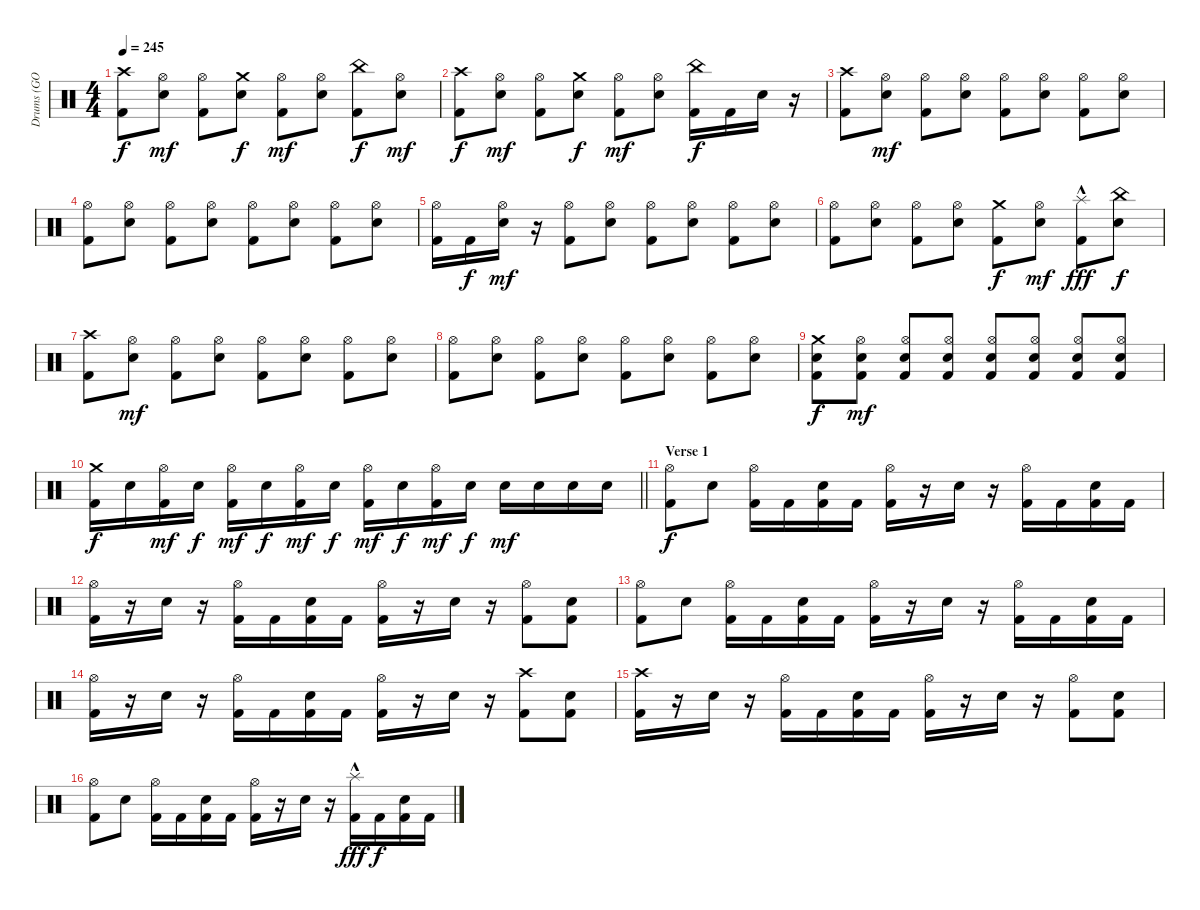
\track ("Drums (GO DIRK)" "Drums (GO ") {instrument percussion}
\staff {score}
\articulation defaults
\ts (4 4)
\tempo 245
\clef neutral
\ks c
("Crash high (hit)" "Kick (hit) 2").8{dy f} ("Hi-Hat (open)" "Electric Snare (hit)").8{dy mf} ("Hi-Hat (open)" "Kick (hit) 2").8 ("Crash medium (hit)" "Electric Snare (hit)").8{dy f} ("Hi-Hat (open)" "Kick (hit) 2").8{dy mf} ("Hi-Hat (open)" "Electric Snare (hit)").8 ("China (hit)" "Kick (hit) 2").8{dy f} ("Hi-Hat (open)" "Electric Snare (hit)").8{dy mf} |
("Crash high (hit)" "Kick (hit) 2").8{dy f} ("Hi-Hat (open)" "Electric Snare (hit)").8{dy mf} ("Hi-Hat (open)" "Kick (hit) 2").8 ("Crash medium (hit)" "Electric Snare (hit)").8{dy f} ("Hi-Hat (open)" "Kick (hit) 2").8{dy mf} ("Hi-Hat (open)" "Electric Snare (hit)").8 ("China (hit)" "Kick (hit) 2").16{dy f} "Kick (hit) 2".16 "Electric Snare (hit)".16 r.16 |
("Crash high (hit)" "Kick (hit) 2").8 ("Hi-Hat (open)" "Electric Snare (hit)").8{dy mf} ("Hi-Hat (open)" "Kick (hit) 2").8 ("Hi-Hat (open)" "Electric Snare (hit)").8 ("Hi-Hat (open)" "Kick (hit) 2").8 ("Hi-Hat (open)" "Electric Snare (hit)").8 ("Hi-Hat (open)" "Kick (hit) 2").8 ("Hi-Hat (open)" "Electric Snare (hit)").8 |
("Hi-Hat (open)" "Kick (hit) 2").8 ("Hi-Hat (open)" "Electric Snare (hit)").8 ("Hi-Hat (open)" "Kick (hit) 2").8 ("Hi-Hat (open)" "Electric Snare (hit)").8 ("Hi-Hat (open)" "Kick (hit) 2").8 ("Hi-Hat (open)" "Electric Snare (hit)").8 ("Hi-Hat (open)" "Kick (hit) 2").8 ("Hi-Hat (open)" "Electric Snare (hit)").8 |
("Hi-Hat (open)" "Kick (hit) 2").16 "Kick (hit) 2".16{dy f} ("Hi-Hat (open)" "Electric Snare (hit)").16{dy mf} r.16 ("Hi-Hat (open)" "Kick (hit) 2").8 ("Hi-Hat (open)" "Electric Snare (hit)").8 ("Hi-Hat (open)" "Kick (hit) 2").8 ("Hi-Hat (open)" "Electric Snare (hit)").8 ("Hi-Hat (open)" "Kick (hit) 2").8 ("Hi-Hat (open)" "Electric Snare (hit)").8 |
("Hi-Hat (open)" "Kick (hit) 2").8 ("Hi-Hat (open)" "Electric Snare (hit)").8 ("Hi-Hat (open)" "Kick (hit) 2").8 ("Hi-Hat (open)" "Electric Snare (hit)").8 ("Crash medium (hit)" "Kick (hit) 2").8{dy f} ("Hi-Hat (open)" "Electric Snare (hit)").8{dy mf} ("Splash (hit)"{hac} "Kick (hit) 2").8{dy fff} ("China (hit)" "Electric Snare (hit)").8{dy f} |
("Crash high (hit)" "Kick (hit) 2").8 ("Hi-Hat (open)" "Electric Snare (hit)").8{dy mf} ("Hi-Hat (open)" "Kick (hit) 2").8 ("Hi-Hat (open)" "Electric Snare (hit)").8 ("Hi-Hat (open)" "Kick (hit) 2").8 ("Hi-Hat (open)" "Electric Snare (hit)").8 ("Hi-Hat (open)" "Kick (hit) 2").8 ("Hi-Hat (open)" "Electric Snare (hit)").8 |
("Hi-Hat (open)" "Kick (hit) 2").8 ("Hi-Hat (open)" "Electric Snare (hit)").8 ("Hi-Hat (open)" "Kick (hit) 2").8 ("Hi-Hat (open)" "Electric Snare (hit)").8 ("Hi-Hat (open)" "Kick (hit) 2").8 ("Hi-Hat (open)" "Electric Snare (hit)").8 ("Hi-Hat (open)" "Kick (hit) 2").8 ("Hi-Hat (open)" "Electric Snare (hit)").8 |
("Crash medium (hit)" "Electric Snare (hit)" "Kick (hit) 2").8{dy f} ("Hi-Hat (open)" "Electric Snare (hit)" "Kick (hit) 2").8{dy mf} ("Hi-Hat (open)" "Electric Snare (hit)" "Kick (hit) 2").8 ("Hi-Hat (open)" "Electric Snare (hit)" "Kick (hit) 2").8 ("Hi-Hat (open)" "Electric Snare (hit)" "Kick (hit) 2").8 ("Hi-Hat (open)" "Electric Snare (hit)" "Kick (hit) 2").8 ("Hi-Hat (open)" "Electric Snare (hit)" "Kick (hit) 2").8 ("Hi-Hat (open)" "Electric Snare (hit)" "Kick (hit) 2").8 |
\barLineRight lightlight
("Crash medium (hit)" "Kick (hit) 2").16{dy f} "Electric Snare (hit)".16 ("Hi-Hat (open)" "Kick (hit) 2").16{dy mf} "Electric Snare (hit)".16{dy f} ("Hi-Hat (open)" "Kick (hit) 2").16{dy mf} "Electric Snare (hit)".16{dy f} ("Hi-Hat (open)" "Kick (hit) 2").16{dy mf} "Electric Snare (hit)".16{dy f} ("Hi-Hat (open)" "Kick (hit) 2").16{dy mf} "Electric Snare (hit)".16{dy f} ("Hi-Hat (open)" "Kick (hit) 2").16{dy mf} "Electric Snare (hit)".16{dy f} "Electric Snare (hit)".16{dy mf} "Electric Snare (hit)".16 "Electric Snare (hit)".16 "Electric Snare (hit)".16 |
\section ("" "Verse 1")
("Hi-Hat (open)" "Kick (hit) 2").8{dy f} "Electric Snare (hit)".8 ("Hi-Hat (open)" "Kick (hit) 2").16 "Kick (hit) 2".16 ("Electric Snare (hit)" "Kick (hit) 2").16 "Kick (hit) 2".16 ("Hi-Hat (open)" "Kick (hit) 2").16 r.16 "Electric Snare (hit)".16 r.16 ("Hi-Hat (open)" "Kick (hit) 2").16 "Kick (hit) 2".16 ("Electric Snare (hit)" "Kick (hit) 2").16 "Kick (hit) 2".16 |
("Hi-Hat (open)" "Kick (hit) 2").16 r.16 "Electric Snare (hit)".16 r.16 ("Hi-Hat (open)" "Kick (hit) 2").16 "Kick (hit) 2".16 ("Electric Snare (hit)" "Kick (hit) 2").16 "Kick (hit) 2".16 ("Hi-Hat (open)" "Kick (hit) 2").16 r.16 "Electric Snare (hit)".16 r.16 ("Hi-Hat (open)" "Kick (hit) 2").8 ("Electric Snare (hit)" "Kick (hit) 2").8 |
("Hi-Hat (open)" "Kick (hit) 2").8 "Electric Snare (hit)".8 ("Hi-Hat (open)" "Kick (hit) 2").16 "Kick (hit) 2".16 ("Electric Snare (hit)" "Kick (hit) 2").16 "Kick (hit) 2".16 ("Hi-Hat (open)" "Kick (hit) 2").16 r.16 "Electric Snare (hit)".16 r.16 ("Hi-Hat (open)" "Kick (hit) 2").16 "Kick (hit) 2".16 ("Electric Snare (hit)" "Kick (hit) 2").16 "Kick (hit) 2".16 |
("Hi-Hat (open)" "Kick (hit) 2").16 r.16 "Electric Snare (hit)".16 r.16 ("Hi-Hat (open)" "Kick (hit) 2").16 "Kick (hit) 2".16 ("Electric Snare (hit)" "Kick (hit) 2").16 "Kick (hit) 2".16 ("Hi-Hat (open)" "Kick (hit) 2").16 r.16 "Electric Snare (hit)".16 r.16 ("Crash high (hit)" "Kick (hit) 2").8 ("Electric Snare (hit)" "Kick (hit) 2").8 |
("Crash high (hit)" "Kick (hit) 2").16 r.16 "Electric Snare (hit)".16 r.16 ("Hi-Hat (open)" "Kick (hit) 2").16 "Kick (hit) 2".16 ("Electric Snare (hit)" "Kick (hit) 2").16 "Kick (hit) 2".16 ("Hi-Hat (open)" "Kick (hit) 2").16 r.16 "Electric Snare (hit)".16 r.16 ("Hi-Hat (open)" "Kick (hit) 2").8 ("Electric Snare (hit)" "Kick (hit) 2").8 |
("Hi-Hat (open)" "Kick (hit) 2").8 "Electric Snare (hit)".8 ("Hi-Hat (open)" "Kick (hit) 2").16 "Kick (hit) 2".16 ("Electric Snare (hit)" "Kick (hit) 2").16 "Kick (hit) 2".16 ("Hi-Hat (open)" "Kick (hit) 2").16 r.16 "Electric Snare (hit)".16 r.16 ("Splash (hit)"{hac} "Kick (hit) 2").16{dy fff} "Kick (hit) 2".16{dy f} ("Electric Snare (hit)" "Kick (hit) 2").16 "Kick (hit) 2".16
